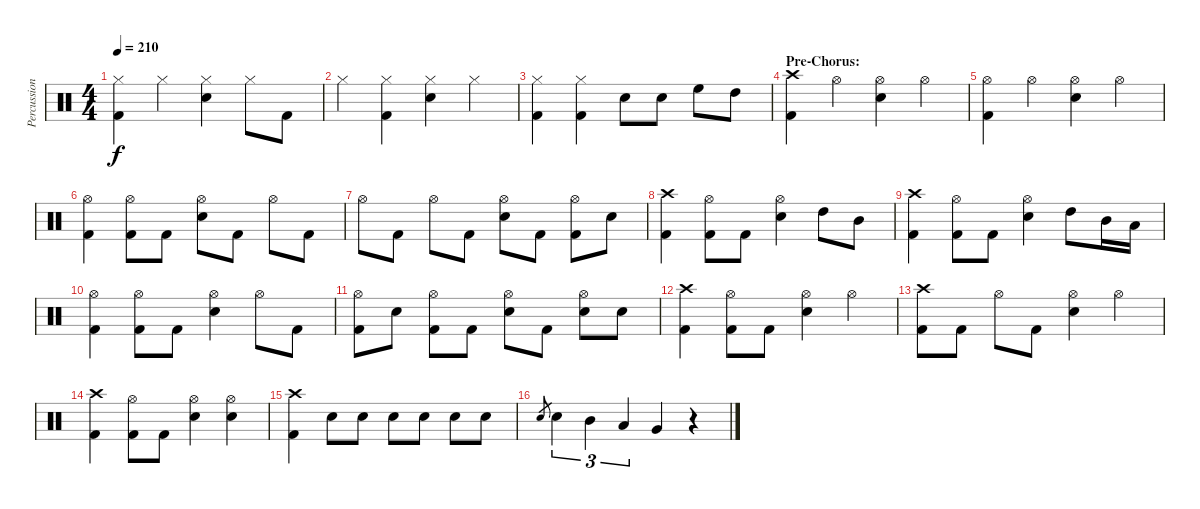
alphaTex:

\track ("Percussion" "Percussion") {instrument percussion}
\staff {score}
\articulation defaults
\ts (4 4)
\tempo 210
\clef neutral
\ks c
("Hi-Hat (closed)" "Kick (hit) 2").4{dy f} "Hi-Hat (closed)".4 ("Hi-Hat (closed)" "Snare (hit) 2").4 "Hi-Hat (closed)".8 "Kick (hit) 2".8 |
"Hi-Hat (closed)".4 ("Hi-Hat (closed)" "Kick (hit) 2").4 ("Hi-Hat (closed)" "Snare (hit) 2").4 "Hi-Hat (closed)".4 |
("Hi-Hat (closed)" "Kick (hit) 2").4 ("Hi-Hat (closed)" "Kick (hit) 2").4 "Snare (hit) 2".8 "Snare (hit) 2".8 "High Floor Tom (hit)".8 "High Tom (hit)".8 |
\section ("" "Pre-Chorus:")
("Crash high (hit)" "Kick (hit) 2").4 "Hi-Hat (open)".4 ("Hi-Hat (open)" "Snare (hit) 2").4 "Hi-Hat (open)".4 |
("Hi-Hat (open)" "Kick (hit) 2").4 "Hi-Hat (open)".4 ("Hi-Hat (open)" "Snare (hit) 2").4 "Hi-Hat (open)".4 |
("Hi-Hat (open)" "Kick (hit) 2").4 ("Hi-Hat (open)" "Kick (hit) 2").8 "Kick (hit) 2".8 ("Hi-Hat (open)" "Snare (hit) 2").8 "Kick (hit) 2".8 "Hi-Hat (open)".8 "Kick (hit) 2".8 |
"Hi-Hat (open)".8 "Kick (hit) 2".8 "Hi-Hat (open)".8 "Kick (hit) 2".8 ("Hi-Hat (open)" "Snare (hit) 2").8 "Kick (hit) 2".8 ("Hi-Hat (open)" "Kick (hit) 2").8 "Snare (hit) 2".8 |
("Crash high (hit)" "Kick (hit) 2").4 ("Hi-Hat (open)" "Kick (hit) 2").8 "Kick (hit) 2".8 ("Hi-Hat (open)" "Snare (hit) 2").4 "High Tom (hit)".8 "Mid Tom (hit)".8 |
("Crash high (hit)" "Kick (hit) 2").4 ("Hi-Hat (open)" "Kick (hit) 2").8 "Kick (hit) 2".8 ("Hi-Hat (open)" "Snare (hit) 2").4 "High Tom (hit)".8 "Mid Tom (hit)".16 "Low Tom (hit)".16 |
("Hi-Hat (open)" "Kick (hit) 2").4 ("Hi-Hat (open)" "Kick (hit) 2").8 "Kick (hit) 2".8 ("Hi-Hat (open)" "Snare (hit) 2").4 "Hi-Hat (open)".8 "Kick (hit) 2".8 |
("Hi-Hat (open)" "Kick (hit) 2").8 "Snare (hit) 2".8 ("Hi-Hat (open)" "Kick (hit) 2").8 "Kick (hit) 2".8 ("Hi-Hat (open)" "Snare (hit) 2").8 "Kick (hit) 2".8 ("Hi-Hat (open)" "Snare (hit) 2").8 "Snare (hit) 2".8 |
("Crash high (hit)" "Kick (hit) 2").4 ("Hi-Hat (open)" "Kick (hit) 2").8 "Kick (hit) 2".8 ("Hi-Hat (open)" "Snare (hit) 2").4 "Hi-Hat (open)".4 |
("Crash high (hit)" "Kick (hit) 2").8 "Kick (hit) 2".8 "Hi-Hat (open)".8 "Kick (hit) 2".8 ("Hi-Hat (open)" "Snare (hit) 2").4 "Hi-Hat (open)".4 |
("Crash high (hit)" "Kick (hit) 2").4 ("Hi-Hat (open)" "Kick (hit) 2").8 "Kick (hit) 2".8 ("Hi-Hat (open)" "Snare (hit) 2").4 ("Hi-Hat (open)" "Snare (hit) 2").4 |
("Crash high (hit)" "Kick (hit) 2").4 "Snare (hit) 2".8 "Snare (hit) 2".8 "Snare (hit) 2".8 "Snare (hit) 2".8 "Snare (hit) 2".8 "Snare (hit) 2".8 |
"Snare (hit) 2".8{gr} "Snare (hit) 2".4{tu (3 2)} "Mid Tom (hit)".4{tu (3 2)} "Low Tom (hit)".4{tu (3 2)} "Very Low Tom (hit)".4 r.4
